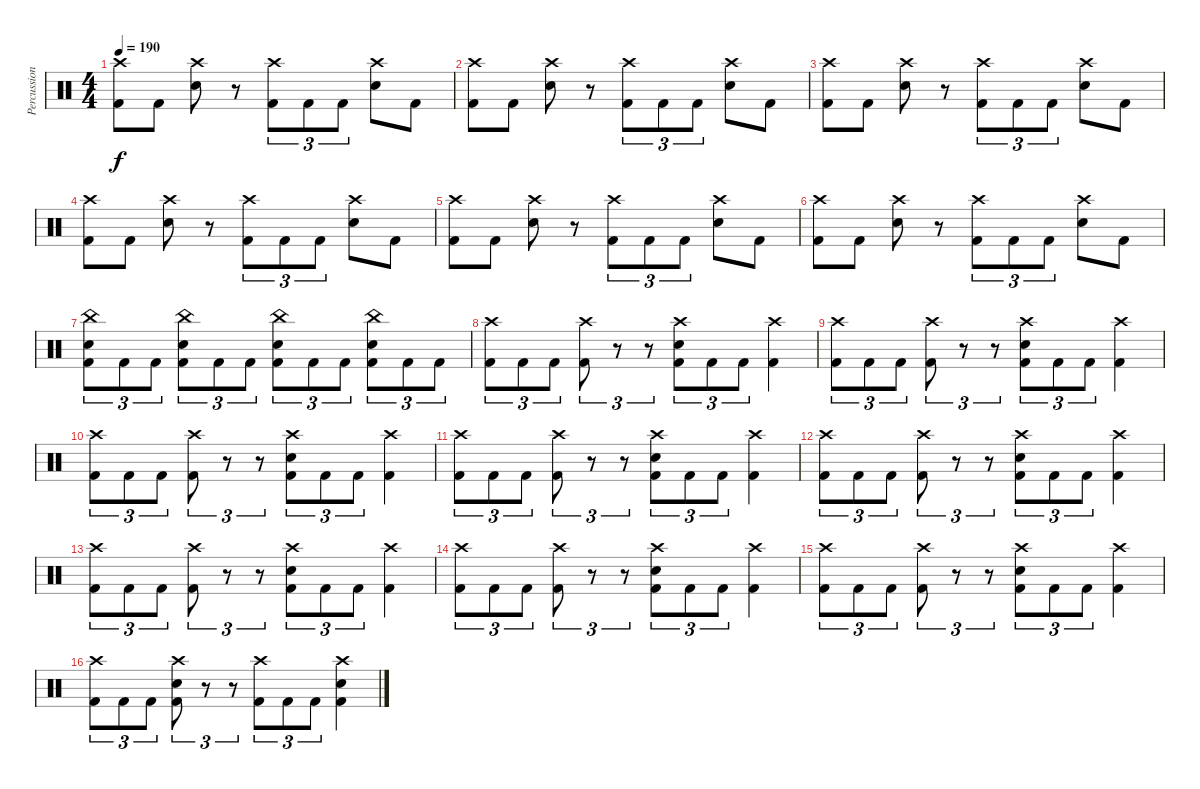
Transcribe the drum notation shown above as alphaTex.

\track ("Percussion" "Percussion") {instrument percussion}
\staff {score}
\articulation defaults
\ts (4 4)
\tempo 190
\clef neutral
\ks c
("Crash high (hit)" "Kick (hit) 2").8{dy f} "Kick (hit) 2".8 ("Crash high (hit)" "Electric Snare (hit)").8 r.8 ("Crash high (hit)" "Kick (hit) 2").8{tu (3 2)} "Kick (hit) 2".8{tu (3 2)} "Kick (hit) 2".8{tu (3 2)} ("Crash high (hit)" "Electric Snare (hit)").8 "Kick (hit) 2".8 |
("Crash high (hit)" "Kick (hit) 2").8 "Kick (hit) 2".8 ("Crash high (hit)" "Electric Snare (hit)").8 r.8 ("Crash high (hit)" "Kick (hit) 2").8{tu (3 2)} "Kick (hit) 2".8{tu (3 2)} "Kick (hit) 2".8{tu (3 2)} ("Crash high (hit)" "Electric Snare (hit)").8 "Kick (hit) 2".8 |
("Crash high (hit)" "Kick (hit) 2").8 "Kick (hit) 2".8 ("Crash high (hit)" "Electric Snare (hit)").8 r.8 ("Crash high (hit)" "Kick (hit) 2").8{tu (3 2)} "Kick (hit) 2".8{tu (3 2)} "Kick (hit) 2".8{tu (3 2)} ("Crash high (hit)" "Electric Snare (hit)").8 "Kick (hit) 2".8 |
("Crash high (hit)" "Kick (hit) 2").8 "Kick (hit) 2".8 ("Crash high (hit)" "Electric Snare (hit)").8 r.8 ("Crash high (hit)" "Kick (hit) 2").8{tu (3 2)} "Kick (hit) 2".8{tu (3 2)} "Kick (hit) 2".8{tu (3 2)} ("Crash high (hit)" "Electric Snare (hit)").8 "Kick (hit) 2".8 |
("Crash high (hit)" "Kick (hit) 2").8 "Kick (hit) 2".8 ("Crash high (hit)" "Electric Snare (hit)").8 r.8 ("Crash high (hit)" "Kick (hit) 2").8{tu (3 2)} "Kick (hit) 2".8{tu (3 2)} "Kick (hit) 2".8{tu (3 2)} ("Crash high (hit)" "Electric Snare (hit)").8 "Kick (hit) 2".8 |
("Crash high (hit)" "Kick (hit) 2").8 "Kick (hit) 2".8 ("Crash high (hit)" "Electric Snare (hit)").8 r.8 ("Crash high (hit)" "Kick (hit) 2").8{tu (3 2)} "Kick (hit) 2".8{tu (3 2)} "Kick (hit) 2".8{tu (3 2)} ("Crash high (hit)" "Electric Snare (hit)").8 "Kick (hit) 2".8 |
("China (hit)" "Electric Snare (hit)" "Kick (hit) 2").8{tu (3 2)} "Kick (hit) 2".8{tu (3 2)} "Kick (hit) 2".8{tu (3 2)} ("China (hit)" "Electric Snare (hit)" "Kick (hit) 2").8{tu (3 2)} "Kick (hit) 2".8{tu (3 2)} "Kick (hit) 2".8{tu (3 2)} ("China (hit)" "Electric Snare (hit)" "Kick (hit) 2").8{tu (3 2)} "Kick (hit) 2".8{tu (3 2)} "Kick (hit) 2".8{tu (3 2)} ("China (hit)" "Electric Snare (hit)" "Kick (hit) 2").8{tu (3 2)} "Kick (hit) 2".8{tu (3 2)} "Kick (hit) 2".8{tu (3 2)} |
("Crash high (hit)" "Kick (hit) 2").8{tu (3 2)} "Kick (hit) 2".8{tu (3 2)} "Kick (hit) 2".8{tu (3 2)} ("Crash high (hit)" "Kick (hit) 2").8{tu (3 2)} r.8{tu (3 2)} r.8{tu (3 2)} ("Crash high (hit)" "Electric Snare (hit)" "Kick (hit) 2").8{tu (3 2)} "Kick (hit) 2".8{tu (3 2)} "Kick (hit) 2".8{tu (3 2)} ("Crash high (hit)" "Kick (hit) 2").4 |
("Crash high (hit)" "Kick (hit) 2").8{tu (3 2)} "Kick (hit) 2".8{tu (3 2)} "Kick (hit) 2".8{tu (3 2)} ("Crash high (hit)" "Kick (hit) 2").8{tu (3 2)} r.8{tu (3 2)} r.8{tu (3 2)} ("Crash high (hit)" "Electric Snare (hit)" "Kick (hit) 2").8{tu (3 2)} "Kick (hit) 2".8{tu (3 2)} "Kick (hit) 2".8{tu (3 2)} ("Crash high (hit)" "Kick (hit) 2").4 |
("Crash high (hit)" "Kick (hit) 2").8{tu (3 2)} "Kick (hit) 2".8{tu (3 2)} "Kick (hit) 2".8{tu (3 2)} ("Crash high (hit)" "Kick (hit) 2").8{tu (3 2)} r.8{tu (3 2)} r.8{tu (3 2)} ("Crash high (hit)" "Electric Snare (hit)" "Kick (hit) 2").8{tu (3 2)} "Kick (hit) 2".8{tu (3 2)} "Kick (hit) 2".8{tu (3 2)} ("Crash high (hit)" "Kick (hit) 2").4 |
("Crash high (hit)" "Kick (hit) 2").8{tu (3 2)} "Kick (hit) 2".8{tu (3 2)} "Kick (hit) 2".8{tu (3 2)} ("Crash high (hit)" "Kick (hit) 2").8{tu (3 2)} r.8{tu (3 2)} r.8{tu (3 2)} ("Crash high (hit)" "Electric Snare (hit)" "Kick (hit) 2").8{tu (3 2)} "Kick (hit) 2".8{tu (3 2)} "Kick (hit) 2".8{tu (3 2)} ("Crash high (hit)" "Kick (hit) 2").4 |
("Crash high (hit)" "Kick (hit) 2").8{tu (3 2)} "Kick (hit) 2".8{tu (3 2)} "Kick (hit) 2".8{tu (3 2)} ("Crash high (hit)" "Kick (hit) 2").8{tu (3 2)} r.8{tu (3 2)} r.8{tu (3 2)} ("Crash high (hit)" "Electric Snare (hit)" "Kick (hit) 2").8{tu (3 2)} "Kick (hit) 2".8{tu (3 2)} "Kick (hit) 2".8{tu (3 2)} ("Crash high (hit)" "Kick (hit) 2").4 |
("Crash high (hit)" "Kick (hit) 2").8{tu (3 2)} "Kick (hit) 2".8{tu (3 2)} "Kick (hit) 2".8{tu (3 2)} ("Crash high (hit)" "Kick (hit) 2").8{tu (3 2)} r.8{tu (3 2)} r.8{tu (3 2)} ("Crash high (hit)" "Electric Snare (hit)" "Kick (hit) 2").8{tu (3 2)} "Kick (hit) 2".8{tu (3 2)} "Kick (hit) 2".8{tu (3 2)} ("Crash high (hit)" "Kick (hit) 2").4 |
("Crash high (hit)" "Kick (hit) 2").8{tu (3 2)} "Kick (hit) 2".8{tu (3 2)} "Kick (hit) 2".8{tu (3 2)} ("Crash high (hit)" "Kick (hit) 2").8{tu (3 2)} r.8{tu (3 2)} r.8{tu (3 2)} ("Crash high (hit)" "Electric Snare (hit)" "Kick (hit) 2").8{tu (3 2)} "Kick (hit) 2".8{tu (3 2)} "Kick (hit) 2".8{tu (3 2)} ("Crash high (hit)" "Kick (hit) 2").4 |
("Crash high (hit)" "Kick (hit) 2").8{tu (3 2)} "Kick (hit) 2".8{tu (3 2)} "Kick (hit) 2".8{tu (3 2)} ("Crash high (hit)" "Kick (hit) 2").8{tu (3 2)} r.8{tu (3 2)} r.8{tu (3 2)} ("Crash high (hit)" "Electric Snare (hit)" "Kick (hit) 2").8{tu (3 2)} "Kick (hit) 2".8{tu (3 2)} "Kick (hit) 2".8{tu (3 2)} ("Crash high (hit)" "Kick (hit) 2").4 |
("Crash high (hit)" "Kick (hit) 2").8{tu (3 2)} "Kick (hit) 2".8{tu (3 2)} "Kick (hit) 2".8{tu (3 2)} ("Crash high (hit)" "Electric Snare (hit)" "Kick (hit) 2").8{tu (3 2)} r.8{tu (3 2)} r.8{tu (3 2)} ("Crash high (hit)" "Kick (hit) 2").8{tu (3 2)} "Kick (hit) 2".8{tu (3 2)} "Kick (hit) 2".8{tu (3 2)} ("Crash high (hit)" "Electric Snare (hit)" "Kick (hit) 2").4
